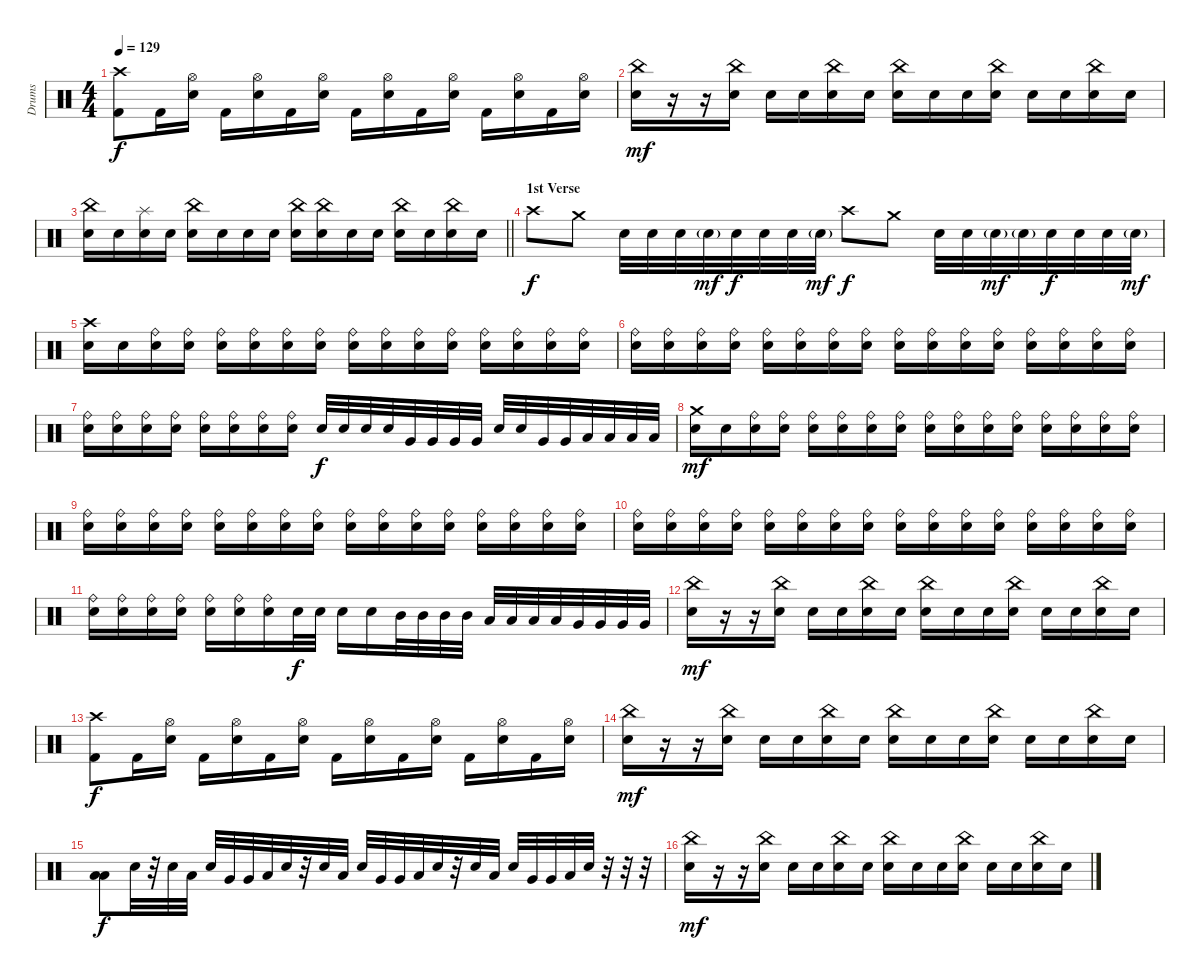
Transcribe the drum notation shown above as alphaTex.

\track ("Drums" "Drums") {instrument percussion}
\staff {score}
\articulation defaults
\ts (4 4)
\tempo 129
\clef neutral
\ks c
("Crash high (hit)" "Kick (hit) 2").8{dy f} "Kick (hit) 2".16 ("Hi-Hat (open)" "Snare (hit) 2").16 "Kick (hit) 2".16 ("Hi-Hat (open)" "Snare (hit) 2").16 "Kick (hit) 2".16 ("Hi-Hat (open)" "Snare (hit) 2").16 "Kick (hit) 2".16 ("Hi-Hat (open)" "Snare (hit) 2").16 "Kick (hit) 2".16 ("Hi-Hat (open)" "Snare (hit) 2").16 "Kick (hit) 2".16 ("Hi-Hat (open)" "Snare (hit) 2").16 "Kick (hit) 2".16 ("Hi-Hat (open)" "Snare (hit) 2").16 |
("China (hit)" "Snare (hit) 2").16{dy mf} r.16 r.16 ("China (hit)" "Snare (hit) 2").16 "Snare (hit) 2".16 "Snare (hit) 2".16 ("China (hit)" "Snare (hit) 2").16 "Snare (hit) 2".16 ("China (hit)" "Snare (hit) 2").16 "Snare (hit) 2".16 "Snare (hit) 2".16 ("China (hit)" "Snare (hit) 2").16 "Snare (hit) 2".16 "Snare (hit) 2".16 ("China (hit)" "Snare (hit) 2").16 "Snare (hit) 2".16 |
\barLineRight lightlight
("China (hit)" "Snare (hit) 2").16 "Snare (hit) 2".16 ("Splash (hit)" "Snare (hit) 2").16 "Snare (hit) 2".16 ("China (hit)" "Snare (hit) 2").16 "Snare (hit) 2".16 "Snare (hit) 2".16 "Snare (hit) 2".16 ("China (hit)" "Snare (hit) 2").16 ("China (hit)" "Snare (hit) 2").16 "Snare (hit) 2".16 "Snare (hit) 2".16 ("China (hit)" "Snare (hit) 2").16 "Snare (hit) 2".16 ("China (hit)" "Snare (hit) 2").16 "Snare (hit) 2".16 |
\section ("" "1st Verse")
"Crash high (hit)".8{dy f} "Crash medium (hit)".8 "Snare (hit) 2".32 "Snare (hit) 2".32 "Snare (hit) 2".32 "Snare (hit) 2"{g}.32{dy mf} "Snare (hit) 2".32{dy f} "Snare (hit) 2".32 "Snare (hit) 2".32 "Snare (hit) 2"{g}.32{dy mf} "Crash high (hit)".8{dy f} "Crash medium (hit)".8 "Snare (hit) 2".32 "Snare (hit) 2".32 "Snare (hit) 2"{g}.32{dy mf} "Snare (hit) 2"{g}.32 "Snare (hit) 2".32{dy f} "Snare (hit) 2".32 "Snare (hit) 2".32 "Snare (hit) 2"{g}.32{dy mf} |
("Crash high (hit)" "Snare (hit) 2").16 "Snare (hit) 2".16 ("Ride (bell)" "Snare (hit) 2").16 ("Ride (bell)" "Snare (hit) 2").16 ("Ride (bell)" "Snare (hit) 2").16 ("Ride (bell)" "Snare (hit) 2").16 ("Ride (bell)" "Snare (hit) 2").16 ("Ride (bell)" "Snare (hit) 2").16 ("Ride (bell)" "Snare (hit) 2").16 ("Ride (bell)" "Snare (hit) 2").16 ("Ride (bell)" "Snare (hit) 2").16 ("Ride (bell)" "Snare (hit) 2").16 ("Ride (bell)" "Snare (hit) 2").16 ("Ride (bell)" "Snare (hit) 2").16 ("Ride (bell)" "Snare (hit) 2").16 ("Ride (bell)" "Snare (hit) 2").16 |
("Ride (bell)" "Snare (hit) 2").16 ("Ride (bell)" "Snare (hit) 2").16 ("Ride (bell)" "Snare (hit) 2").16 ("Ride (bell)" "Snare (hit) 2").16 ("Ride (bell)" "Snare (hit) 2").16 ("Ride (bell)" "Snare (hit) 2").16 ("Ride (bell)" "Snare (hit) 2").16 ("Ride (bell)" "Snare (hit) 2").16 ("Ride (bell)" "Snare (hit) 2").16 ("Ride (bell)" "Snare (hit) 2").16 ("Ride (bell)" "Snare (hit) 2").16 ("Ride (bell)" "Snare (hit) 2").16 ("Ride (bell)" "Snare (hit) 2").16 ("Ride (bell)" "Snare (hit) 2").16 ("Ride (bell)" "Snare (hit) 2").16 ("Ride (bell)" "Snare (hit) 2").16 |
("Ride (bell)" "Snare (hit) 2").16 ("Ride (bell)" "Snare (hit) 2").16 ("Ride (bell)" "Snare (hit) 2").16 ("Ride (bell)" "Snare (hit) 2").16 ("Ride (bell)" "Snare (hit) 2").16 ("Ride (bell)" "Snare (hit) 2").16 ("Ride (bell)" "Snare (hit) 2").16 ("Ride (bell)" "Snare (hit) 2").16 "Snare (hit) 2".32{dy f} "Snare (hit) 2".32 "Snare (hit) 2".32 "Snare (hit) 2".32 "Very Low Tom (hit)".32 "Very Low Tom (hit)".32 "Very Low Tom (hit)".32 "Very Low Tom (hit)".32 "Snare (hit) 2".32 "Snare (hit) 2".32 "Very Low Tom (hit)".32 "Very Low Tom (hit)".32 "Low Floor Tom (hit)".32 "Low Floor Tom (hit)".32 "Low Floor Tom (hit)".32 "Low Floor Tom (hit)".32 |
("Crash medium (hit)" "Snare (hit) 2").16{dy mf} "Snare (hit) 2".16 ("Ride (bell)" "Snare (hit) 2").16 ("Ride (bell)" "Snare (hit) 2").16 ("Ride (bell)" "Snare (hit) 2").16 ("Ride (bell)" "Snare (hit) 2").16 ("Ride (bell)" "Snare (hit) 2").16 ("Ride (bell)" "Snare (hit) 2").16 ("Ride (bell)" "Snare (hit) 2").16 ("Ride (bell)" "Snare (hit) 2").16 ("Ride (bell)" "Snare (hit) 2").16 ("Ride (bell)" "Snare (hit) 2").16 ("Ride (bell)" "Snare (hit) 2").16 ("Ride (bell)" "Snare (hit) 2").16 ("Ride (bell)" "Snare (hit) 2").16 ("Ride (bell)" "Snare (hit) 2").16 |
("Ride (bell)" "Snare (hit) 2").16 ("Ride (bell)" "Snare (hit) 2").16 ("Ride (bell)" "Snare (hit) 2").16 ("Ride (bell)" "Snare (hit) 2").16 ("Ride (bell)" "Snare (hit) 2").16 ("Ride (bell)" "Snare (hit) 2").16 ("Ride (bell)" "Snare (hit) 2").16 ("Ride (bell)" "Snare (hit) 2").16 ("Ride (bell)" "Snare (hit) 2").16 ("Ride (bell)" "Snare (hit) 2").16 ("Ride (bell)" "Snare (hit) 2").16 ("Ride (bell)" "Snare (hit) 2").16 ("Ride (bell)" "Snare (hit) 2").16 ("Ride (bell)" "Snare (hit) 2").16 ("Ride (bell)" "Snare (hit) 2").16 ("Ride (bell)" "Snare (hit) 2").16 |
("Ride (bell)" "Snare (hit) 2").16 ("Ride (bell)" "Snare (hit) 2").16 ("Ride (bell)" "Snare (hit) 2").16 ("Ride (bell)" "Snare (hit) 2").16 ("Ride (bell)" "Snare (hit) 2").16 ("Ride (bell)" "Snare (hit) 2").16 ("Ride (bell)" "Snare (hit) 2").16 ("Ride (bell)" "Snare (hit) 2").16 ("Ride (bell)" "Snare (hit) 2").16 ("Ride (bell)" "Snare (hit) 2").16 ("Ride (bell)" "Snare (hit) 2").16 ("Ride (bell)" "Snare (hit) 2").16 ("Ride (bell)" "Snare (hit) 2").16 ("Ride (bell)" "Snare (hit) 2").16 ("Ride (bell)" "Snare (hit) 2").16 ("Ride (bell)" "Snare (hit) 2").16 |
("Ride (bell)" "Snare (hit) 2").16 ("Ride (bell)" "Snare (hit) 2").16 ("Ride (bell)" "Snare (hit) 2").16 ("Ride (bell)" "Snare (hit) 2").16 ("Ride (bell)" "Snare (hit) 2").16 ("Ride (bell)" "Snare (hit) 2").16 ("Ride (bell)" "Snare (hit) 2").16 "Snare (hit) 2".32{dy f} "Snare (hit) 2".32 "Snare (hit) 2".16 "Snare (hit) 2".16 "Mid Tom (hit)".32 "Mid Tom (hit)".32 "Mid Tom (hit)".32 "Mid Tom (hit)".32 "Low Tom (hit)".32 "Low Tom (hit)".32 "Low Tom (hit)".32 "Low Tom (hit)".32 "Very Low Tom (hit)".32 "Very Low Tom (hit)".32 "Very Low Tom (hit)".32 "Very Low Tom (hit)".32 |
("China (hit)" "Snare (hit) 2").16{dy mf} r.16 r.16 ("China (hit)" "Snare (hit) 2").16 "Snare (hit) 2".16 "Snare (hit) 2".16 ("China (hit)" "Snare (hit) 2").16 "Snare (hit) 2".16 ("China (hit)" "Snare (hit) 2").16 "Snare (hit) 2".16 "Snare (hit) 2".16 ("China (hit)" "Snare (hit) 2").16 "Snare (hit) 2".16 "Snare (hit) 2".16 ("China (hit)" "Snare (hit) 2").16 "Snare (hit) 2".16 |
("Crash high (hit)" "Kick (hit) 2").8{dy f} "Kick (hit) 2".16 ("Hi-Hat (open)" "Snare (hit) 2").16 "Kick (hit) 2".16 ("Hi-Hat (open)" "Snare (hit) 2").16 "Kick (hit) 2".16 ("Hi-Hat (open)" "Snare (hit) 2").16 "Kick (hit) 2".16 ("Hi-Hat (open)" "Snare (hit) 2").16 "Kick (hit) 2".16 ("Hi-Hat (open)" "Snare (hit) 2").16 "Kick (hit) 2".16 ("Hi-Hat (open)" "Snare (hit) 2").16 "Kick (hit) 2".16 ("Hi-Hat (open)" "Snare (hit) 2").16 |
("China (hit)" "Snare (hit) 2").16{dy mf} r.16 r.16 ("China (hit)" "Snare (hit) 2").16 "Snare (hit) 2".16 "Snare (hit) 2".16 ("China (hit)" "Snare (hit) 2").16 "Snare (hit) 2".16 ("China (hit)" "Snare (hit) 2").16 "Snare (hit) 2".16 "Snare (hit) 2".16 ("China (hit)" "Snare (hit) 2").16 "Snare (hit) 2".16 "Snare (hit) 2".16 ("China (hit)" "Snare (hit) 2").16 "Snare (hit) 2".16 |
("Low Tom (hit)" "Low Floor Tom (hit)").8{dy f} "Snare (hit) 2".32 r.32 "Snare (hit) 2".32 "Low Tom (hit)".32 "Snare (hit) 2".32 "Very Low Tom (hit)".32 "Very Low Tom (hit)".32 "Low Floor Tom (hit)".32 "Snare (hit) 2".32 r.32 "Snare (hit) 2".32 "Low Tom (hit)".32 "Snare (hit) 2".32 "Very Low Tom (hit)".32 "Very Low Tom (hit)".32 "Low Floor Tom (hit)".32 "Snare (hit) 2".32 r.32 "Snare (hit) 2".32 "Low Tom (hit)".32 "Snare (hit) 2".32 "Very Low Tom (hit)".32 "Very Low Tom (hit)".32 "Low Floor Tom (hit)".32 "Snare (hit) 2".32 r.32 r.32 r.32 |
("China (hit)" "Snare (hit) 2").16{dy mf} r.16 r.16 ("China (hit)" "Snare (hit) 2").16 "Snare (hit) 2".16 "Snare (hit) 2".16 ("China (hit)" "Snare (hit) 2").16 "Snare (hit) 2".16 ("China (hit)" "Snare (hit) 2").16 "Snare (hit) 2".16 "Snare (hit) 2".16 ("China (hit)" "Snare (hit) 2").16 "Snare (hit) 2".16 "Snare (hit) 2".16 ("China (hit)" "Snare (hit) 2").16 "Snare (hit) 2".16
